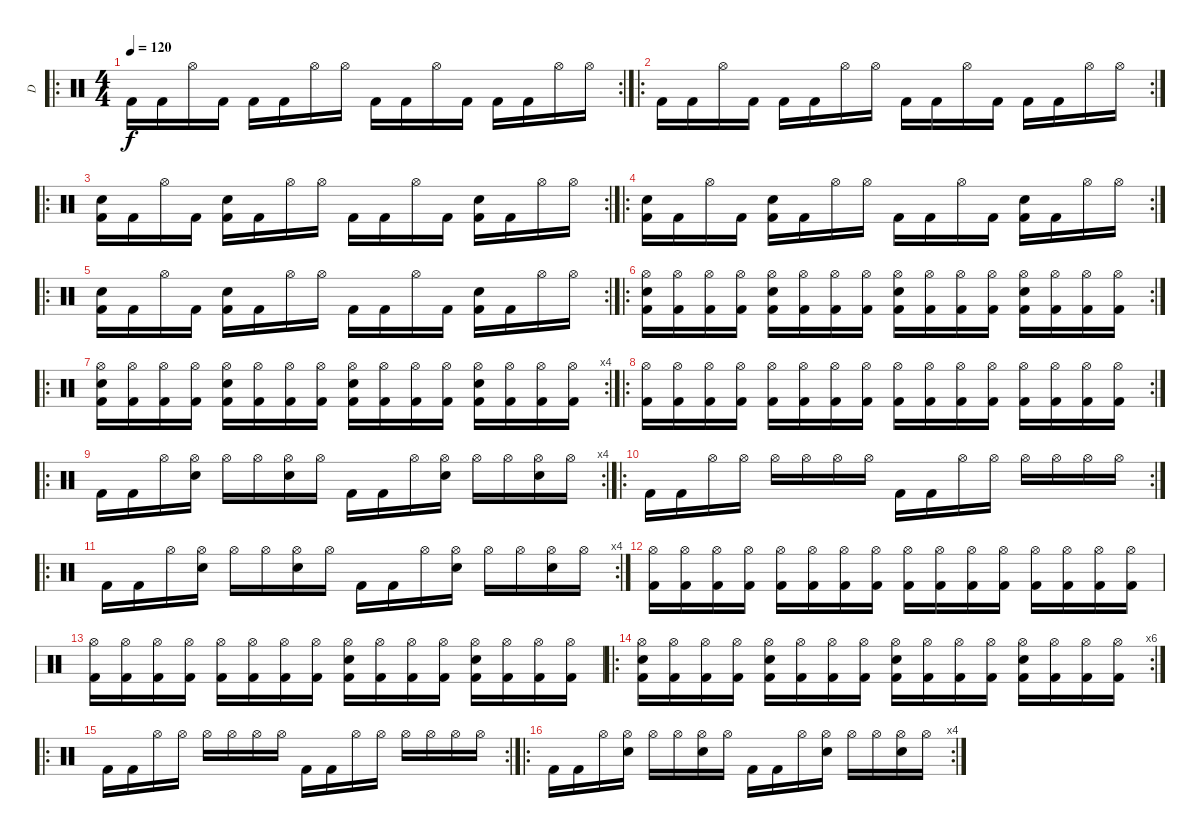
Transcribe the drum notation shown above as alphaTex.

\track ("D" "D") {instrument percussion}
\staff {score}
\articulation defaults
\ro
\rc 2
\ts (4 4)
\tempo 120
\clef neutral
\ks c "Kick (hit) 2".16{dy f} "Kick (hit) 2".16 "Hi-Hat (open)".16 "Kick (hit) 2".16 "Kick (hit) 2".16 "Kick (hit) 2".16 "Hi-Hat (open)".16 "Hi-Hat (open)".16 "Kick (hit) 2".16 "Kick (hit) 2".16 "Hi-Hat (open)".16 "Kick (hit) 2".16 "Kick (hit) 2".16 "Kick (hit) 2".16 "Hi-Hat (open)".16 "Hi-Hat (open)".16
|
\ro
\rc 2 "Kick (hit) 2".16 "Kick (hit) 2".16 "Hi-Hat (open)".16 "Kick (hit) 2".16 "Kick (hit) 2".16 "Kick (hit) 2".16 "Hi-Hat (open)".16 "Hi-Hat (open)".16 "Kick (hit) 2".16 "Kick (hit) 2".16 "Hi-Hat (open)".16 "Kick (hit) 2".16 "Kick (hit) 2".16 "Kick (hit) 2".16 "Hi-Hat (open)".16 "Hi-Hat (open)".16
|
\ro
\rc 2
("Electric Snare (hit)" "Kick (hit) 2").16 "Kick (hit) 2".16 "Hi-Hat (open)".16 "Kick (hit) 2".16 ("Electric Snare (hit)" "Kick (hit) 2").16 "Kick (hit) 2".16 "Hi-Hat (open)".16 "Hi-Hat (open)".16 "Kick (hit) 2".16 "Kick (hit) 2".16 "Hi-Hat (open)".16 "Kick (hit) 2".16 ("Electric Snare (hit)" "Kick (hit) 2").16 "Kick (hit) 2".16 "Hi-Hat (open)".16 "Hi-Hat (open)".16 |
\ro
\rc 2
("Electric Snare (hit)" "Kick (hit) 2").16 "Kick (hit) 2".16 "Hi-Hat (open)".16 "Kick (hit) 2".16 ("Electric Snare (hit)" "Kick (hit) 2").16 "Kick (hit) 2".16 "Hi-Hat (open)".16 "Hi-Hat (open)".16 "Kick (hit) 2".16 "Kick (hit) 2".16 "Hi-Hat (open)".16 "Kick (hit) 2".16 ("Electric Snare (hit)" "Kick (hit) 2").16 "Kick (hit) 2".16 "Hi-Hat (open)".16 "Hi-Hat (open)".16 |
\ro
\rc 2
("Electric Snare (hit)" "Kick (hit) 2").16 "Kick (hit) 2".16 "Hi-Hat (open)".16 "Kick (hit) 2".16 ("Electric Snare (hit)" "Kick (hit) 2").16 "Kick (hit) 2".16 "Hi-Hat (open)".16 "Hi-Hat (open)".16 "Kick (hit) 2".16 "Kick (hit) 2".16 "Hi-Hat (open)".16 "Kick (hit) 2".16 ("Electric Snare (hit)" "Kick (hit) 2").16 "Kick (hit) 2".16 "Hi-Hat (open)".16 "Hi-Hat (open)".16 |
\ro
\rc 2
("Hi-Hat (open)" "Electric Snare (hit)" "Kick (hit) 2").16 ("Hi-Hat (open)" "Kick (hit) 2").16 ("Hi-Hat (open)" "Kick (hit) 2").16 ("Hi-Hat (open)" "Kick (hit) 2").16 ("Hi-Hat (open)" "Electric Snare (hit)" "Kick (hit) 2").16 ("Hi-Hat (open)" "Kick (hit) 2").16 ("Hi-Hat (open)" "Kick (hit) 2").16 ("Hi-Hat (open)" "Kick (hit) 2").16 ("Hi-Hat (open)" "Electric Snare (hit)" "Kick (hit) 2").16 ("Hi-Hat (open)" "Kick (hit) 2").16 ("Hi-Hat (open)" "Kick (hit) 2").16 ("Hi-Hat (open)" "Kick (hit) 2").16 ("Hi-Hat (open)" "Electric Snare (hit)" "Kick (hit) 2").16 ("Hi-Hat (open)" "Kick (hit) 2").16 ("Hi-Hat (open)" "Kick (hit) 2").16 ("Hi-Hat (open)" "Kick (hit) 2").16 |
\ro
\rc 4
("Hi-Hat (open)" "Electric Snare (hit)" "Kick (hit) 2").16 ("Hi-Hat (open)" "Kick (hit) 2").16 ("Hi-Hat (open)" "Kick (hit) 2").16 ("Hi-Hat (open)" "Kick (hit) 2").16 ("Hi-Hat (open)" "Electric Snare (hit)" "Kick (hit) 2").16 ("Hi-Hat (open)" "Kick (hit) 2").16 ("Hi-Hat (open)" "Kick (hit) 2").16 ("Hi-Hat (open)" "Kick (hit) 2").16 ("Hi-Hat (open)" "Electric Snare (hit)" "Kick (hit) 2").16 ("Hi-Hat (open)" "Kick (hit) 2").16 ("Hi-Hat (open)" "Kick (hit) 2").16 ("Hi-Hat (open)" "Kick (hit) 2").16 ("Hi-Hat (open)" "Electric Snare (hit)" "Kick (hit) 2").16 ("Hi-Hat (open)" "Kick (hit) 2").16 ("Hi-Hat (open)" "Kick (hit) 2").16 ("Hi-Hat (open)" "Kick (hit) 2").16 |
\ro
\rc 2
("Hi-Hat (open)" "Kick (hit) 2").16 ("Hi-Hat (open)" "Kick (hit) 2").16 ("Hi-Hat (open)" "Kick (hit) 2").16 ("Hi-Hat (open)" "Kick (hit) 2").16 ("Hi-Hat (open)" "Kick (hit) 2").16 ("Hi-Hat (open)" "Kick (hit) 2").16 ("Hi-Hat (open)" "Kick (hit) 2").16 ("Hi-Hat (open)" "Kick (hit) 2").16 ("Hi-Hat (open)" "Kick (hit) 2").16 ("Hi-Hat (open)" "Kick (hit) 2").16 ("Hi-Hat (open)" "Kick (hit) 2").16 ("Hi-Hat (open)" "Kick (hit) 2").16 ("Hi-Hat (open)" "Kick (hit) 2").16 ("Hi-Hat (open)" "Kick (hit) 2").16 ("Hi-Hat (open)" "Kick (hit) 2").16 ("Hi-Hat (open)" "Kick (hit) 2").16 |
\ro
\rc 4 "Kick (hit) 2".16 "Kick (hit) 2".16 "Hi-Hat (open)".16
("Electric Snare (hit)" "Hi-Hat (open)").16 "Hi-Hat (open)".16 "Hi-Hat (open)".16 ("Electric Snare (hit)" "Hi-Hat (open)").16 "Hi-Hat (open)".16 "Kick (hit) 2".16 "Kick (hit) 2".16 "Hi-Hat (open)".16 ("Electric Snare (hit)" "Hi-Hat (open)").16 "Hi-Hat (open)".16 "Hi-Hat (open)".16 ("Electric Snare (hit)" "Hi-Hat (open)").16 "Hi-Hat (open)".16 |
\ro
\rc 2 "Kick (hit) 2".16 "Kick (hit) 2".16 "Hi-Hat (open)".16 "Hi-Hat (open)".16 "Hi-Hat (open)".16 "Hi-Hat (open)".16 "Hi-Hat (open)".16 "Hi-Hat (open)".16 "Kick (hit) 2".16 "Kick (hit) 2".16 "Hi-Hat (open)".16 "Hi-Hat (open)".16 "Hi-Hat (open)".16 "Hi-Hat (open)".16 "Hi-Hat (open)".16 "Hi-Hat (open)".16
|
\ro
\rc 4 "Kick (hit) 2".16 "Kick (hit) 2".16 "Hi-Hat (open)".16
("Electric Snare (hit)" "Hi-Hat (open)").16 "Hi-Hat (open)".16 "Hi-Hat (open)".16 ("Electric Snare (hit)" "Hi-Hat (open)").16 "Hi-Hat (open)".16 "Kick (hit) 2".16 "Kick (hit) 2".16 "Hi-Hat (open)".16 ("Electric Snare (hit)" "Hi-Hat (open)").16 "Hi-Hat (open)".16 "Hi-Hat (open)".16 ("Electric Snare (hit)" "Hi-Hat (open)").16 "Hi-Hat (open)".16 |
("Hi-Hat (open)" "Kick (hit) 2").16 ("Hi-Hat (open)" "Kick (hit) 2").16 ("Hi-Hat (open)" "Kick (hit) 2").16 ("Hi-Hat (open)" "Kick (hit) 2").16 ("Hi-Hat (open)" "Kick (hit) 2").16 ("Hi-Hat (open)" "Kick (hit) 2").16 ("Hi-Hat (open)" "Kick (hit) 2").16 ("Hi-Hat (open)" "Kick (hit) 2").16 ("Hi-Hat (open)" "Kick (hit) 2").16 ("Hi-Hat (open)" "Kick (hit) 2").16 ("Hi-Hat (open)" "Kick (hit) 2").16 ("Hi-Hat (open)" "Kick (hit) 2").16 ("Hi-Hat (open)" "Kick (hit) 2").16 ("Hi-Hat (open)" "Kick (hit) 2").16 ("Hi-Hat (open)" "Kick (hit) 2").16 ("Hi-Hat (open)" "Kick (hit) 2").16 |
("Hi-Hat (open)" "Kick (hit) 2").16 ("Hi-Hat (open)" "Kick (hit) 2").16 ("Hi-Hat (open)" "Kick (hit) 2").16 ("Hi-Hat (open)" "Kick (hit) 2").16 ("Hi-Hat (open)" "Kick (hit) 2").16 ("Hi-Hat (open)" "Kick (hit) 2").16 ("Hi-Hat (open)" "Kick (hit) 2").16 ("Hi-Hat (open)" "Kick (hit) 2").16 ("Hi-Hat (open)" "Electric Snare (hit)" "Kick (hit) 2").16 ("Hi-Hat (open)" "Kick (hit) 2").16 ("Hi-Hat (open)" "Kick (hit) 2").16 ("Hi-Hat (open)" "Kick (hit) 2").16 ("Hi-Hat (open)" "Electric Snare (hit)" "Kick (hit) 2").16 ("Hi-Hat (open)" "Kick (hit) 2").16 ("Hi-Hat (open)" "Kick (hit) 2").16 ("Hi-Hat (open)" "Kick (hit) 2").16 |
\ro
\rc 6
("Hi-Hat (open)" "Electric Snare (hit)" "Kick (hit) 2").16 ("Hi-Hat (open)" "Kick (hit) 2").16 ("Hi-Hat (open)" "Kick (hit) 2").16 ("Hi-Hat (open)" "Kick (hit) 2").16 ("Hi-Hat (open)" "Electric Snare (hit)" "Kick (hit) 2").16 ("Hi-Hat (open)" "Kick (hit) 2").16 ("Hi-Hat (open)" "Kick (hit) 2").16 ("Hi-Hat (open)" "Kick (hit) 2").16 ("Hi-Hat (open)" "Electric Snare (hit)" "Kick (hit) 2").16 ("Hi-Hat (open)" "Kick (hit) 2").16 ("Hi-Hat (open)" "Kick (hit) 2").16 ("Hi-Hat (open)" "Kick (hit) 2").16 ("Hi-Hat (open)" "Electric Snare (hit)" "Kick (hit) 2").16 ("Hi-Hat (open)" "Kick (hit) 2").16 ("Hi-Hat (open)" "Kick (hit) 2").16 ("Hi-Hat (open)" "Kick (hit) 2").16 |
\ro
\rc 2 "Kick (hit) 2".16 "Kick (hit) 2".16 "Hi-Hat (open)".16 "Hi-Hat (open)".16 "Hi-Hat (open)".16 "Hi-Hat (open)".16 "Hi-Hat (open)".16 "Hi-Hat (open)".16 "Kick (hit) 2".16 "Kick (hit) 2".16 "Hi-Hat (open)".16 "Hi-Hat (open)".16 "Hi-Hat (open)".16 "Hi-Hat (open)".16 "Hi-Hat (open)".16 "Hi-Hat (open)".16
|
\ro
\rc 4 "Kick (hit) 2".16 "Kick (hit) 2".16 "Hi-Hat (open)".16
("Electric Snare (hit)" "Hi-Hat (open)").16 "Hi-Hat (open)".16 "Hi-Hat (open)".16 ("Electric Snare (hit)" "Hi-Hat (open)").16 "Hi-Hat (open)".16 "Kick (hit) 2".16 "Kick (hit) 2".16 "Hi-Hat (open)".16 ("Electric Snare (hit)" "Hi-Hat (open)").16 "Hi-Hat (open)".16 "Hi-Hat (open)".16 ("Electric Snare (hit)" "Hi-Hat (open)").16 "Hi-Hat (open)".16
